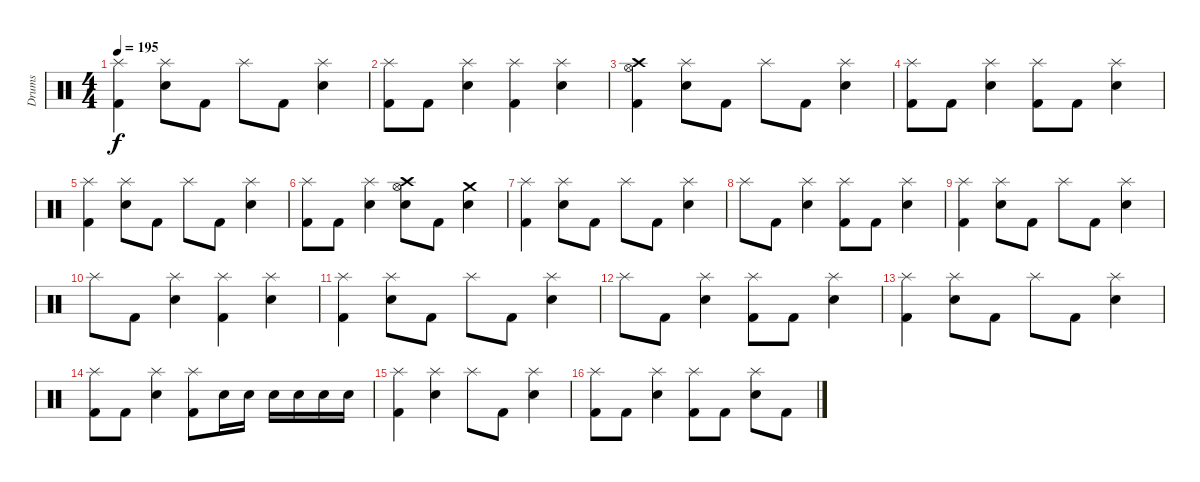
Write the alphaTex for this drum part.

\track ("Drums" "Drums") {instrument percussion}
\staff {score}
\articulation defaults
\ts (4 4)
\tempo 195
\clef neutral
\ks c
("Splash (hit)" "Kick (hit) 2").4{dy f} ("Splash (hit)" "Electric Snare (hit)").8 "Kick (hit) 2".8 "Splash (hit)".8 "Kick (hit) 2".8 ("Splash (hit)" "Electric Snare (hit)").4 |
("Splash (hit)" "Kick (hit) 2").8 "Kick (hit) 2".8 ("Splash (hit)" "Electric Snare (hit)").4 ("Splash (hit)" "Kick (hit) 2").4 ("Splash (hit)" "Electric Snare (hit)").4 |
("Crash high (hit)" "Hi-Hat (open)" "Kick (hit) 2").4 ("Splash (hit)" "Electric Snare (hit)").8 "Kick (hit) 2".8 "Splash (hit)".8 "Kick (hit) 2".8 ("Splash (hit)" "Electric Snare (hit)").4 |
("Splash (hit)" "Kick (hit) 2").8 "Kick (hit) 2".8 ("Splash (hit)" "Electric Snare (hit)").4 ("Splash (hit)" "Kick (hit) 2").8 "Kick (hit) 2".8 ("Splash (hit)" "Electric Snare (hit)").4 |
("Splash (hit)" "Kick (hit) 2").4 ("Splash (hit)" "Electric Snare (hit)").8 "Kick (hit) 2".8 "Splash (hit)".8 "Kick (hit) 2".8 ("Splash (hit)" "Electric Snare (hit)").4 |
("Splash (hit)" "Kick (hit) 2").8 "Kick (hit) 2".8 ("Splash (hit)" "Electric Snare (hit)").4 ("Crash high (hit)" "Hi-Hat (open)" "Electric Snare (hit)").8 "Kick (hit) 2".8 ("Crash medium (hit)" "Electric Snare (hit)").4 |
("Splash (hit)" "Kick (hit) 2").4 ("Splash (hit)" "Electric Snare (hit)").8 "Kick (hit) 2".8 "Splash (hit)".8 "Kick (hit) 2".8 ("Splash (hit)" "Electric Snare (hit)").4 |
"Splash (hit)".8 "Kick (hit) 2".8 ("Splash (hit)" "Electric Snare (hit)").4 ("Splash (hit)" "Kick (hit) 2").8 "Kick (hit) 2".8 ("Splash (hit)" "Electric Snare (hit)").4 |
("Splash (hit)" "Kick (hit) 2").4 ("Splash (hit)" "Electric Snare (hit)").8 "Kick (hit) 2".8 "Splash (hit)".8 "Kick (hit) 2".8 ("Splash (hit)" "Electric Snare (hit)").4 |
"Splash (hit)".8 "Kick (hit) 2".8 ("Splash (hit)" "Electric Snare (hit)").4 ("Splash (hit)" "Kick (hit) 2").4 ("Splash (hit)" "Electric Snare (hit)").4 |
("Splash (hit)" "Kick (hit) 2").4 ("Splash (hit)" "Electric Snare (hit)").8 "Kick (hit) 2".8 "Splash (hit)".8 "Kick (hit) 2".8 ("Splash (hit)" "Electric Snare (hit)").4 |
"Splash (hit)".8 "Kick (hit) 2".8 ("Splash (hit)" "Electric Snare (hit)").4 ("Splash (hit)" "Kick (hit) 2").8 "Kick (hit) 2".8 ("Splash (hit)" "Electric Snare (hit)").4 |
("Splash (hit)" "Kick (hit) 2").4 ("Splash (hit)" "Electric Snare (hit)").8 "Kick (hit) 2".8 "Splash (hit)".8 "Kick (hit) 2".8 ("Splash (hit)" "Electric Snare (hit)").4 |
("Splash (hit)" "Kick (hit) 2").8 "Kick (hit) 2".8 ("Splash (hit)" "Electric Snare (hit)").4 ("Splash (hit)" "Kick (hit) 2").8 "Electric Snare (hit)".16 "Electric Snare (hit)".16 "Electric Snare (hit)".16 "Electric Snare (hit)".16 "Electric Snare (hit)".16 "Electric Snare (hit)".16 |
("Splash (hit)" "Kick (hit) 2").4 ("Splash (hit)" "Electric Snare (hit)").4 "Splash (hit)".8 "Kick (hit) 2".8 ("Splash (hit)" "Electric Snare (hit)").4 |
("Splash (hit)" "Kick (hit) 2").8 "Kick (hit) 2".8 ("Splash (hit)" "Electric Snare (hit)").4 ("Splash (hit)" "Kick (hit) 2").8 "Kick (hit) 2".8 ("Splash (hit)" "Electric Snare (hit)").8 "Kick (hit) 2".8
